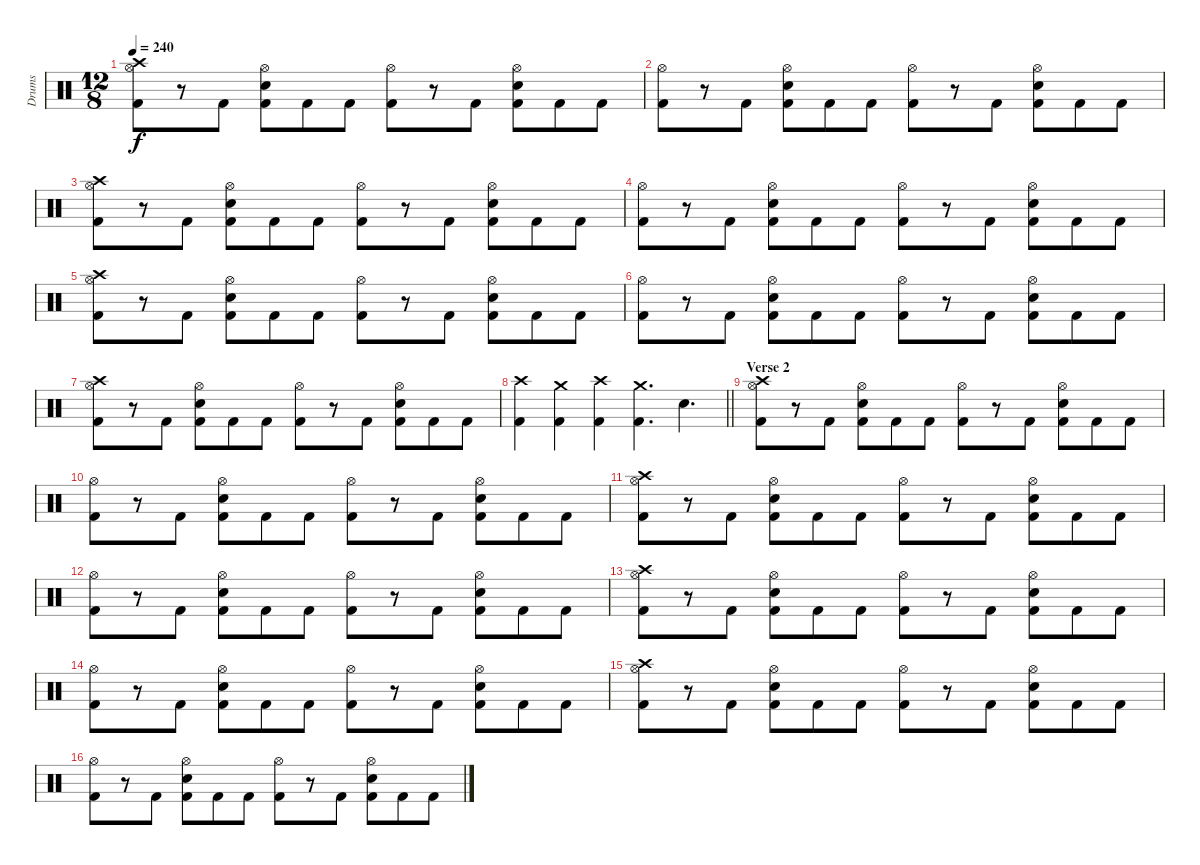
\track ("Drums" "Drums") {instrument percussion}
\staff {score}
\articulation defaults
\ts (12 8)
\tempo 240
\clef neutral
\ks c
("Crash high (hit)" "Hi-Hat (open)" "Kick (hit) 2").8{dy f} r.8 "Kick (hit) 2".8 ("Hi-Hat (open)" "Snare (hit) 2" "Kick (hit) 2").8 "Kick (hit) 2".8 "Kick (hit) 2".8 ("Hi-Hat (open)" "Kick (hit) 2").8 r.8 "Kick (hit) 2".8 ("Hi-Hat (open)" "Snare (hit) 2" "Kick (hit) 2").8 "Kick (hit) 2".8 "Kick (hit) 2".8 |
("Hi-Hat (open)" "Kick (hit) 2").8 r.8 "Kick (hit) 2".8 ("Hi-Hat (open)" "Snare (hit) 2" "Kick (hit) 2").8 "Kick (hit) 2".8 "Kick (hit) 2".8 ("Hi-Hat (open)" "Kick (hit) 2").8 r.8 "Kick (hit) 2".8 ("Hi-Hat (open)" "Snare (hit) 2" "Kick (hit) 2").8 "Kick (hit) 2".8 "Kick (hit) 2".8 |
("Crash high (hit)" "Hi-Hat (open)" "Kick (hit) 2").8 r.8 "Kick (hit) 2".8 ("Hi-Hat (open)" "Snare (hit) 2" "Kick (hit) 2").8 "Kick (hit) 2".8 "Kick (hit) 2".8 ("Hi-Hat (open)" "Kick (hit) 2").8 r.8 "Kick (hit) 2".8 ("Hi-Hat (open)" "Snare (hit) 2" "Kick (hit) 2").8 "Kick (hit) 2".8 "Kick (hit) 2".8 |
("Hi-Hat (open)" "Kick (hit) 2").8 r.8 "Kick (hit) 2".8 ("Hi-Hat (open)" "Snare (hit) 2" "Kick (hit) 2").8 "Kick (hit) 2".8 "Kick (hit) 2".8 ("Hi-Hat (open)" "Kick (hit) 2").8 r.8 "Kick (hit) 2".8 ("Hi-Hat (open)" "Snare (hit) 2" "Kick (hit) 2").8 "Kick (hit) 2".8 "Kick (hit) 2".8 |
("Crash high (hit)" "Hi-Hat (open)" "Kick (hit) 2").8 r.8 "Kick (hit) 2".8 ("Hi-Hat (open)" "Snare (hit) 2" "Kick (hit) 2").8 "Kick (hit) 2".8 "Kick (hit) 2".8 ("Hi-Hat (open)" "Kick (hit) 2").8 r.8 "Kick (hit) 2".8 ("Hi-Hat (open)" "Snare (hit) 2" "Kick (hit) 2").8 "Kick (hit) 2".8 "Kick (hit) 2".8 |
("Hi-Hat (open)" "Kick (hit) 2").8 r.8 "Kick (hit) 2".8 ("Hi-Hat (open)" "Snare (hit) 2" "Kick (hit) 2").8 "Kick (hit) 2".8 "Kick (hit) 2".8 ("Hi-Hat (open)" "Kick (hit) 2").8 r.8 "Kick (hit) 2".8 ("Hi-Hat (open)" "Snare (hit) 2" "Kick (hit) 2").8 "Kick (hit) 2".8 "Kick (hit) 2".8 |
("Crash high (hit)" "Hi-Hat (open)" "Kick (hit) 2").8 r.8 "Kick (hit) 2".8 ("Hi-Hat (open)" "Snare (hit) 2" "Kick (hit) 2").8 "Kick (hit) 2".8 "Kick (hit) 2".8 ("Hi-Hat (open)" "Kick (hit) 2").8 r.8 "Kick (hit) 2".8 ("Hi-Hat (open)" "Snare (hit) 2" "Kick (hit) 2").8 "Kick (hit) 2".8 "Kick (hit) 2".8 |
\barLineRight lightlight
("Crash high (hit)" "Kick (hit) 2").4 ("Crash medium (hit)" "Kick (hit) 2").4 ("Crash high (hit)" "Kick (hit) 2").4 ("Crash medium (hit)" "Kick (hit) 2").4{d} "Snare (hit) 2".4{d} |
\section ("" "Verse 2")
("Crash high (hit)" "Hi-Hat (open)" "Kick (hit) 2").8 r.8 "Kick (hit) 2".8 ("Hi-Hat (open)" "Snare (hit) 2" "Kick (hit) 2").8 "Kick (hit) 2".8 "Kick (hit) 2".8 ("Hi-Hat (open)" "Kick (hit) 2").8 r.8 "Kick (hit) 2".8 ("Hi-Hat (open)" "Snare (hit) 2" "Kick (hit) 2").8 "Kick (hit) 2".8 "Kick (hit) 2".8 |
("Hi-Hat (open)" "Kick (hit) 2").8 r.8 "Kick (hit) 2".8 ("Hi-Hat (open)" "Snare (hit) 2" "Kick (hit) 2").8 "Kick (hit) 2".8 "Kick (hit) 2".8 ("Hi-Hat (open)" "Kick (hit) 2").8 r.8 "Kick (hit) 2".8 ("Hi-Hat (open)" "Snare (hit) 2" "Kick (hit) 2").8 "Kick (hit) 2".8 "Kick (hit) 2".8 |
("Crash high (hit)" "Hi-Hat (open)" "Kick (hit) 2").8 r.8 "Kick (hit) 2".8 ("Hi-Hat (open)" "Snare (hit) 2" "Kick (hit) 2").8 "Kick (hit) 2".8 "Kick (hit) 2".8 ("Hi-Hat (open)" "Kick (hit) 2").8 r.8 "Kick (hit) 2".8 ("Hi-Hat (open)" "Snare (hit) 2" "Kick (hit) 2").8 "Kick (hit) 2".8 "Kick (hit) 2".8 |
("Hi-Hat (open)" "Kick (hit) 2").8 r.8 "Kick (hit) 2".8 ("Hi-Hat (open)" "Snare (hit) 2" "Kick (hit) 2").8 "Kick (hit) 2".8 "Kick (hit) 2".8 ("Hi-Hat (open)" "Kick (hit) 2").8 r.8 "Kick (hit) 2".8 ("Hi-Hat (open)" "Snare (hit) 2" "Kick (hit) 2").8 "Kick (hit) 2".8 "Kick (hit) 2".8 |
("Crash high (hit)" "Hi-Hat (open)" "Kick (hit) 2").8 r.8 "Kick (hit) 2".8 ("Hi-Hat (open)" "Snare (hit) 2" "Kick (hit) 2").8 "Kick (hit) 2".8 "Kick (hit) 2".8 ("Hi-Hat (open)" "Kick (hit) 2").8 r.8 "Kick (hit) 2".8 ("Hi-Hat (open)" "Snare (hit) 2" "Kick (hit) 2").8 "Kick (hit) 2".8 "Kick (hit) 2".8 |
("Hi-Hat (open)" "Kick (hit) 2").8 r.8 "Kick (hit) 2".8 ("Hi-Hat (open)" "Snare (hit) 2" "Kick (hit) 2").8 "Kick (hit) 2".8 "Kick (hit) 2".8 ("Hi-Hat (open)" "Kick (hit) 2").8 r.8 "Kick (hit) 2".8 ("Hi-Hat (open)" "Snare (hit) 2" "Kick (hit) 2").8 "Kick (hit) 2".8 "Kick (hit) 2".8 |
("Crash high (hit)" "Hi-Hat (open)" "Kick (hit) 2").8 r.8 "Kick (hit) 2".8 ("Hi-Hat (open)" "Snare (hit) 2" "Kick (hit) 2").8 "Kick (hit) 2".8 "Kick (hit) 2".8 ("Hi-Hat (open)" "Kick (hit) 2").8 r.8 "Kick (hit) 2".8 ("Hi-Hat (open)" "Snare (hit) 2" "Kick (hit) 2").8 "Kick (hit) 2".8 "Kick (hit) 2".8 |
("Hi-Hat (open)" "Kick (hit) 2").8 r.8 "Kick (hit) 2".8 ("Hi-Hat (open)" "Snare (hit) 2" "Kick (hit) 2").8 "Kick (hit) 2".8 "Kick (hit) 2".8 ("Hi-Hat (open)" "Kick (hit) 2").8 r.8 "Kick (hit) 2".8 ("Hi-Hat (open)" "Snare (hit) 2" "Kick (hit) 2").8 "Kick (hit) 2".8 "Kick (hit) 2".8
